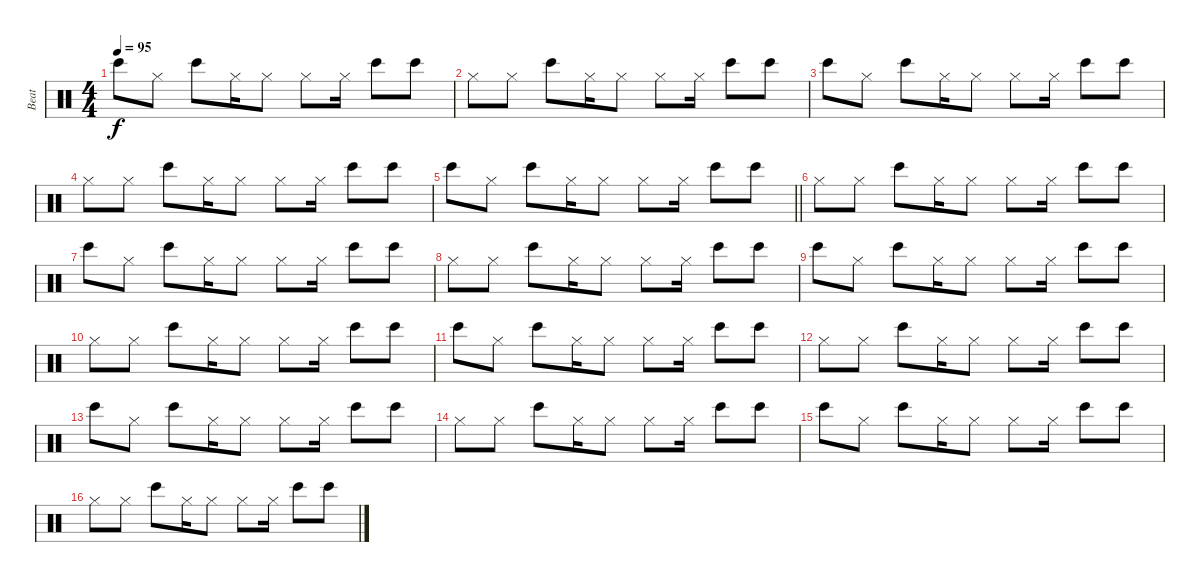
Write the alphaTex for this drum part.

\track ("Beat" "Beat") {instrument percussion}
\staff {score}
\articulation defaults
\ts (4 4)
\tempo 95
\clef neutral
\ks c "Bongo High (hit)".8{dy f} "Hi-Hat (closed)".8 "Bongo High (hit)".8 "Hi-Hat (closed)".16 "Hi-Hat (closed)".8 "Hi-Hat (closed)".8 "Hi-Hat (closed)".16 "Bongo High (hit)".8 "Bongo High (hit)".8
|
"Hi-Hat (closed)".8 "Hi-Hat (closed)".8 "Bongo High (hit)".8 "Hi-Hat (closed)".16 "Hi-Hat (closed)".8 "Hi-Hat (closed)".8 "Hi-Hat (closed)".16 "Bongo High (hit)".8 "Bongo High (hit)".8 |
"Bongo High (hit)".8 "Hi-Hat (closed)".8 "Bongo High (hit)".8 "Hi-Hat (closed)".16 "Hi-Hat (closed)".8 "Hi-Hat (closed)".8 "Hi-Hat (closed)".16 "Bongo High (hit)".8 "Bongo High (hit)".8 |
"Hi-Hat (closed)".8 "Hi-Hat (closed)".8 "Bongo High (hit)".8 "Hi-Hat (closed)".16 "Hi-Hat (closed)".8 "Hi-Hat (closed)".8 "Hi-Hat (closed)".16 "Bongo High (hit)".8 "Bongo High (hit)".8 |
\barLineRight lightlight "Bongo High (hit)".8 "Hi-Hat (closed)".8 "Bongo High (hit)".8 "Hi-Hat (closed)".16 "Hi-Hat (closed)".8 "Hi-Hat (closed)".8 "Hi-Hat (closed)".16 "Bongo High (hit)".8 "Bongo High (hit)".8
|
"Hi-Hat (closed)".8 "Hi-Hat (closed)".8 "Bongo High (hit)".8 "Hi-Hat (closed)".16 "Hi-Hat (closed)".8 "Hi-Hat (closed)".8 "Hi-Hat (closed)".16 "Bongo High (hit)".8 "Bongo High (hit)".8 |
"Bongo High (hit)".8 "Hi-Hat (closed)".8 "Bongo High (hit)".8 "Hi-Hat (closed)".16 "Hi-Hat (closed)".8 "Hi-Hat (closed)".8 "Hi-Hat (closed)".16 "Bongo High (hit)".8 "Bongo High (hit)".8 |
"Hi-Hat (closed)".8 "Hi-Hat (closed)".8 "Bongo High (hit)".8 "Hi-Hat (closed)".16 "Hi-Hat (closed)".8 "Hi-Hat (closed)".8 "Hi-Hat (closed)".16 "Bongo High (hit)".8 "Bongo High (hit)".8 |
"Bongo High (hit)".8 "Hi-Hat (closed)".8 "Bongo High (hit)".8 "Hi-Hat (closed)".16 "Hi-Hat (closed)".8 "Hi-Hat (closed)".8 "Hi-Hat (closed)".16 "Bongo High (hit)".8 "Bongo High (hit)".8 |
"Hi-Hat (closed)".8 "Hi-Hat (closed)".8 "Bongo High (hit)".8 "Hi-Hat (closed)".16 "Hi-Hat (closed)".8 "Hi-Hat (closed)".8 "Hi-Hat (closed)".16 "Bongo High (hit)".8 "Bongo High (hit)".8 |
"Bongo High (hit)".8 "Hi-Hat (closed)".8 "Bongo High (hit)".8 "Hi-Hat (closed)".16 "Hi-Hat (closed)".8 "Hi-Hat (closed)".8 "Hi-Hat (closed)".16 "Bongo High (hit)".8 "Bongo High (hit)".8 |
"Hi-Hat (closed)".8 "Hi-Hat (closed)".8 "Bongo High (hit)".8 "Hi-Hat (closed)".16 "Hi-Hat (closed)".8 "Hi-Hat (closed)".8 "Hi-Hat (closed)".16 "Bongo High (hit)".8 "Bongo High (hit)".8 |
"Bongo High (hit)".8 "Hi-Hat (closed)".8 "Bongo High (hit)".8 "Hi-Hat (closed)".16 "Hi-Hat (closed)".8 "Hi-Hat (closed)".8 "Hi-Hat (closed)".16 "Bongo High (hit)".8 "Bongo High (hit)".8 |
"Hi-Hat (closed)".8 "Hi-Hat (closed)".8 "Bongo High (hit)".8 "Hi-Hat (closed)".16 "Hi-Hat (closed)".8 "Hi-Hat (closed)".8 "Hi-Hat (closed)".16 "Bongo High (hit)".8 "Bongo High (hit)".8 |
"Bongo High (hit)".8 "Hi-Hat (closed)".8 "Bongo High (hit)".8 "Hi-Hat (closed)".16 "Hi-Hat (closed)".8 "Hi-Hat (closed)".8 "Hi-Hat (closed)".16 "Bongo High (hit)".8 "Bongo High (hit)".8 |
"Hi-Hat (closed)".8 "Hi-Hat (closed)".8 "Bongo High (hit)".8 "Hi-Hat (closed)".16 "Hi-Hat (closed)".8 "Hi-Hat (closed)".8 "Hi-Hat (closed)".16 "Bongo High (hit)".8 "Bongo High (hit)".8
